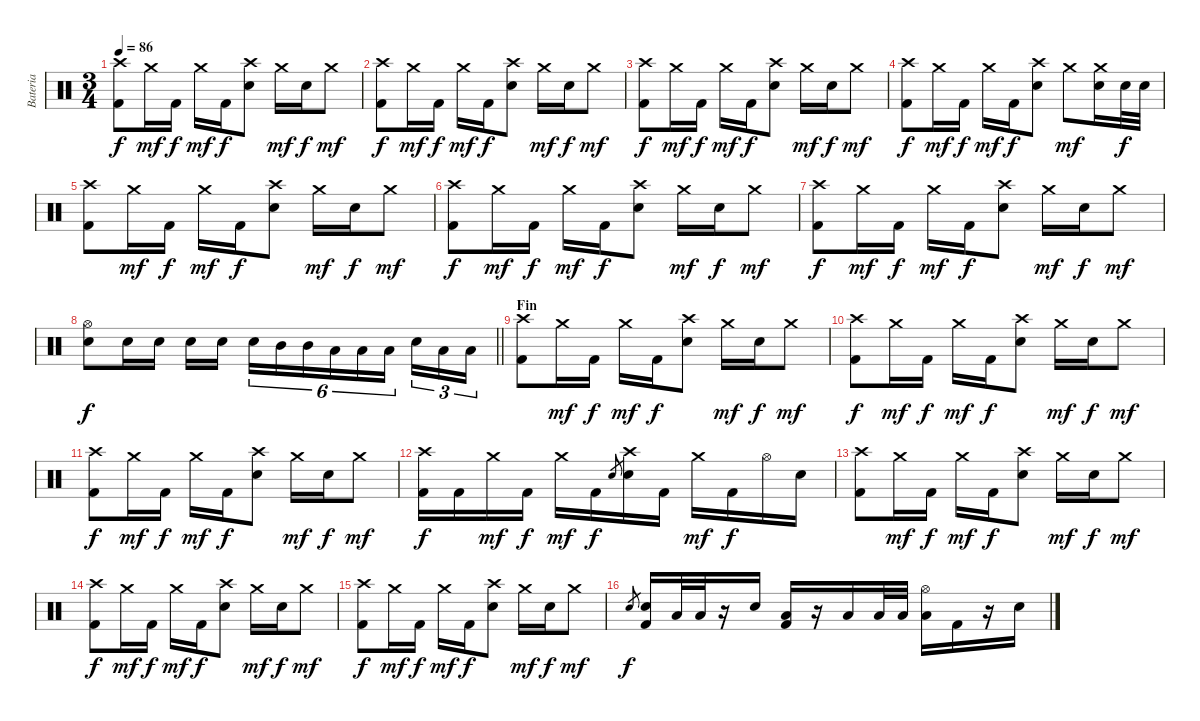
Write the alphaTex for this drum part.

\track ("Bateria" "Bateria") {instrument percussion}
\staff {score}
\articulation defaults
\ts (3 4)
\tempo 86
\clef neutral
\ks c
("Crash high (hit)" "Kick (hit) 2").8{dy f} "Crash medium (hit)".16{dy mf} "Kick (hit) 2".16{dy f} "Crash medium (hit)".16{dy mf} "Kick (hit) 2".16{dy f} ("Crash high (hit)" "Snare (hit) 2").8 "Crash medium (hit)".16{dy mf} "Snare (hit) 2".16{dy f} "Crash medium (hit)".8{dy mf} |
("Crash high (hit)" "Kick (hit) 2").8{dy f} "Crash medium (hit)".16{dy mf} "Kick (hit) 2".16{dy f} "Crash medium (hit)".16{dy mf} "Kick (hit) 2".16{dy f} ("Crash high (hit)" "Snare (hit) 2").8 "Crash medium (hit)".16{dy mf} "Snare (hit) 2".16{dy f} "Crash medium (hit)".8{dy mf} |
("Crash high (hit)" "Kick (hit) 2").8{dy f} "Crash medium (hit)".16{dy mf} "Kick (hit) 2".16{dy f} "Crash medium (hit)".16{dy mf} "Kick (hit) 2".16{dy f} ("Crash high (hit)" "Snare (hit) 2").8 "Crash medium (hit)".16{dy mf} "Snare (hit) 2".16{dy f} "Crash medium (hit)".8{dy mf} |
("Crash high (hit)" "Kick (hit) 2").8{dy f} "Crash medium (hit)".16{dy mf} "Kick (hit) 2".16{dy f} "Crash medium (hit)".16{dy mf} "Kick (hit) 2".16{dy f} ("Crash high (hit)" "Snare (hit) 2").8 "Crash medium (hit)".8{dy mf} ("Crash medium (hit)" "Snare (hit) 2").16 "Snare (hit) 2".32{dy f} "Snare (hit) 2".32 |
("Crash high (hit)" "Kick (hit) 2").8 "Crash medium (hit)".16{dy mf} "Kick (hit) 2".16{dy f} "Crash medium (hit)".16{dy mf} "Kick (hit) 2".16{dy f} ("Crash high (hit)" "Snare (hit) 2").8 "Crash medium (hit)".16{dy mf} "Snare (hit) 2".16{dy f} "Crash medium (hit)".8{dy mf} |
("Crash high (hit)" "Kick (hit) 2").8{dy f} "Crash medium (hit)".16{dy mf} "Kick (hit) 2".16{dy f} "Crash medium (hit)".16{dy mf} "Kick (hit) 2".16{dy f} ("Crash high (hit)" "Snare (hit) 2").8 "Crash medium (hit)".16{dy mf} "Snare (hit) 2".16{dy f} "Crash medium (hit)".8{dy mf} |
("Crash high (hit)" "Kick (hit) 2").8{dy f} "Crash medium (hit)".16{dy mf} "Kick (hit) 2".16{dy f} "Crash medium (hit)".16{dy mf} "Kick (hit) 2".16{dy f} ("Crash high (hit)" "Snare (hit) 2").8 "Crash medium (hit)".16{dy mf} "Snare (hit) 2".16{dy f} "Crash medium (hit)".8{dy mf} |
\barLineRight lightlight
("Hi-Hat (open)" "Snare (hit) 2").8{dy f} "Snare (hit) 2".16 "Snare (hit) 2".16 "Snare (hit) 2".16 "Snare (hit) 2".16{beam splitsecondary} "Snare (hit) 2".16{tu (6 4)} "Mid Tom (hit)".16{tu (6 4)} "Mid Tom (hit)".16{tu (6 4)} "Low Tom (hit)".16{tu (6 4)} "Low Tom (hit)".16{tu (6 4)} "Low Floor Tom (hit)".16{tu (6 4) beam splitsecondary} "Snare (hit) 2".16{tu (3 2)} "Low Tom (hit)".16{tu (3 2)} "Low Floor Tom (hit)".16{tu (3 2)} |
\section ("" "Fin")
("Crash high (hit)" "Kick (hit) 2").8 "Crash medium (hit)".16{dy mf} "Kick (hit) 2".16{dy f} "Crash medium (hit)".16{dy mf} "Kick (hit) 2".16{dy f} ("Crash high (hit)" "Snare (hit) 2").8 "Crash medium (hit)".16{dy mf} "Snare (hit) 2".16{dy f} "Crash medium (hit)".8{dy mf} |
("Crash high (hit)" "Kick (hit) 2").8{dy f} "Crash medium (hit)".16{dy mf} "Kick (hit) 2".16{dy f} "Crash medium (hit)".16{dy mf} "Kick (hit) 2".16{dy f} ("Crash high (hit)" "Snare (hit) 2").8 "Crash medium (hit)".16{dy mf} "Snare (hit) 2".16{dy f} "Crash medium (hit)".8{dy mf} |
("Crash high (hit)" "Kick (hit) 2").8{dy f} "Crash medium (hit)".16{dy mf} "Kick (hit) 2".16{dy f} "Crash medium (hit)".16{dy mf} "Kick (hit) 2".16{dy f} ("Crash high (hit)" "Snare (hit) 2").8 "Crash medium (hit)".16{dy mf} "Snare (hit) 2".16{dy f} "Crash medium (hit)".8{dy mf} |
("Crash high (hit)" "Kick (hit) 2").16{dy f} "Kick (hit) 2".16 "Crash medium (hit)".16{dy mf} "Kick (hit) 2".16{dy f} "Crash medium (hit)".16{dy mf} "Kick (hit) 2".16{dy f} "Snare (hit) 2".8{gr} ("Crash high (hit)" "Snare (hit) 2").16 "Kick (hit) 2".16 "Crash medium (hit)".16{dy mf} "Kick (hit) 2".16{dy f} "Hi-Hat (open)".16 "Snare (hit) 2".16 |
("Crash high (hit)" "Kick (hit) 2").8 "Crash medium (hit)".16{dy mf} "Kick (hit) 2".16{dy f} "Crash medium (hit)".16{dy mf} "Kick (hit) 2".16{dy f} ("Crash high (hit)" "Snare (hit) 2").8 "Crash medium (hit)".16{dy mf} "Snare (hit) 2".16{dy f} "Crash medium (hit)".8{dy mf} |
("Crash high (hit)" "Kick (hit) 2").8{dy f} "Crash medium (hit)".16{dy mf} "Kick (hit) 2".16{dy f} "Crash medium (hit)".16{dy mf} "Kick (hit) 2".16{dy f} ("Crash high (hit)" "Snare (hit) 2").8 "Crash medium (hit)".16{dy mf} "Snare (hit) 2".16{dy f} "Crash medium (hit)".8{dy mf} |
("Crash high (hit)" "Kick (hit) 2").8{dy f} "Crash medium (hit)".16{dy mf} "Kick (hit) 2".16{dy f} "Crash medium (hit)".16{dy mf} "Kick (hit) 2".16{dy f} ("Crash high (hit)" "Snare (hit) 2").8 "Crash medium (hit)".16{dy mf} "Snare (hit) 2".16{dy f} "Crash medium (hit)".8{dy mf} |
"Snare (hit) 2".8{gr dy f} ("Snare (hit) 2" "Kick (hit) 2").16 "Low Floor Tom (hit)".32 "Low Floor Tom (hit)".32 r.16 "Snare (hit) 2".16 ("Low Floor Tom (hit)" "Kick (hit) 2").16 r.16 "Low Floor Tom (hit)".16 "Low Floor Tom (hit)".32 "Low Floor Tom (hit)".32 ("Hi-Hat (open)" "Low Floor Tom (hit)").16 "Kick (hit) 2".16 r.16 "Snare (hit) 2".16
